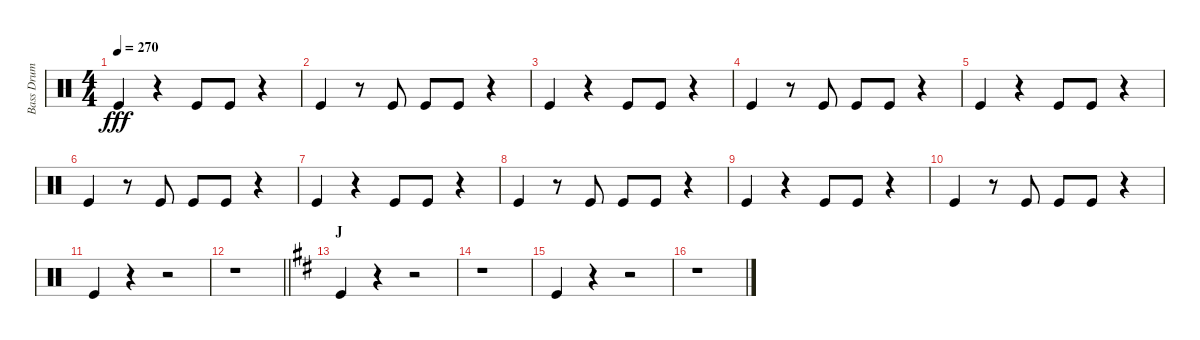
\track ("Bass Drum" "Bass Drum") {instrument percussion}
\staff {score}
\articulation defaults
\ts (4 4)
\tempo 270
\clef neutral
\ks c "Kick (hit)".4{dy fff}
r.4 "Kick (hit)".8 "Kick (hit)".8 r.4 |
"Kick (hit)".4 r.8 "Kick (hit)".8 "Kick (hit)".8 "Kick (hit)".8 r.4 |
"Kick (hit)".4 r.4 "Kick (hit)".8 "Kick (hit)".8 r.4 |
"Kick (hit)".4 r.8 "Kick (hit)".8 "Kick (hit)".8 "Kick (hit)".8 r.4 |
"Kick (hit)".4 r.4 "Kick (hit)".8 "Kick (hit)".8 r.4 |
"Kick (hit)".4 r.8 "Kick (hit)".8 "Kick (hit)".8 "Kick (hit)".8 r.4 |
"Kick (hit)".4 r.4 "Kick (hit)".8 "Kick (hit)".8 r.4 |
"Kick (hit)".4 r.8 "Kick (hit)".8 "Kick (hit)".8 "Kick (hit)".8 r.4 |
"Kick (hit)".4 r.4 "Kick (hit)".8 "Kick (hit)".8 r.4 |
"Kick (hit)".4 r.8 "Kick (hit)".8 "Kick (hit)".8 "Kick (hit)".8 r.4 |
"Kick (hit)".4 r.4 r.2 |
\barLineRight lightlight
r.1 |
\section ("" "J")
\ks d "Kick (hit)".4
r.4 r.2 |
r.1 |
"Kick (hit)".4 r.4 r.2 |
r.1
